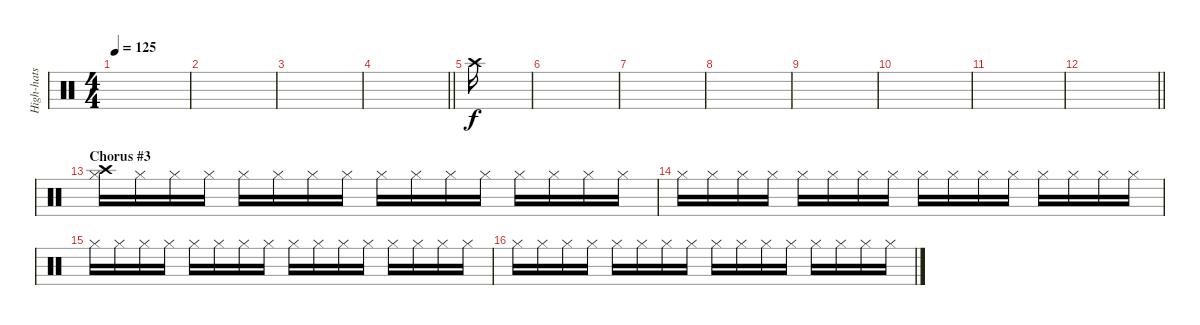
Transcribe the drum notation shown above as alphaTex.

\track ("High-hats" "High-hats") {instrument percussion}
\staff {score}
\articulation defaults
\ts (4 4)
\tempo 125
\clef neutral
\ks c
|
|
|
\barLineRight lightlight
|
"Crash high (hit)".16 |
|
|
|
|
|
|
\barLineRight lightlight
|
\section ("" "Chorus #3")
("Hi-Hat (closed)" "Crash high (hit)").16 "Hi-Hat (closed)".16 "Hi-Hat (closed)".16 "Hi-Hat (closed)".16 "Hi-Hat (closed)".16 "Hi-Hat (closed)".16 "Hi-Hat (closed)".16 "Hi-Hat (closed)".16 "Hi-Hat (closed)".16 "Hi-Hat (closed)".16 "Hi-Hat (closed)".16 "Hi-Hat (closed)".16 "Hi-Hat (closed)".16 "Hi-Hat (closed)".16 "Hi-Hat (closed)".16 "Hi-Hat (closed)".16 |
"Hi-Hat (closed)".16 "Hi-Hat (closed)".16 "Hi-Hat (closed)".16 "Hi-Hat (closed)".16 "Hi-Hat (closed)".16 "Hi-Hat (closed)".16 "Hi-Hat (closed)".16 "Hi-Hat (closed)".16 "Hi-Hat (closed)".16 "Hi-Hat (closed)".16 "Hi-Hat (closed)".16 "Hi-Hat (closed)".16 "Hi-Hat (closed)".16 "Hi-Hat (closed)".16 "Hi-Hat (closed)".16 "Hi-Hat (closed)".16 |
"Hi-Hat (closed)".16 "Hi-Hat (closed)".16 "Hi-Hat (closed)".16 "Hi-Hat (closed)".16 "Hi-Hat (closed)".16 "Hi-Hat (closed)".16 "Hi-Hat (closed)".16 "Hi-Hat (closed)".16 "Hi-Hat (closed)".16 "Hi-Hat (closed)".16 "Hi-Hat (closed)".16 "Hi-Hat (closed)".16 "Hi-Hat (closed)".16 "Hi-Hat (closed)".16 "Hi-Hat (closed)".16 "Hi-Hat (closed)".16 |
"Hi-Hat (closed)".16 "Hi-Hat (closed)".16 "Hi-Hat (closed)".16 "Hi-Hat (closed)".16 "Hi-Hat (closed)".16 "Hi-Hat (closed)".16 "Hi-Hat (closed)".16 "Hi-Hat (closed)".16 "Hi-Hat (closed)".16 "Hi-Hat (closed)".16 "Hi-Hat (closed)".16 "Hi-Hat (closed)".16 "Hi-Hat (closed)".16 "Hi-Hat (closed)".16 "Hi-Hat (closed)".16 "Hi-Hat (closed)".16
